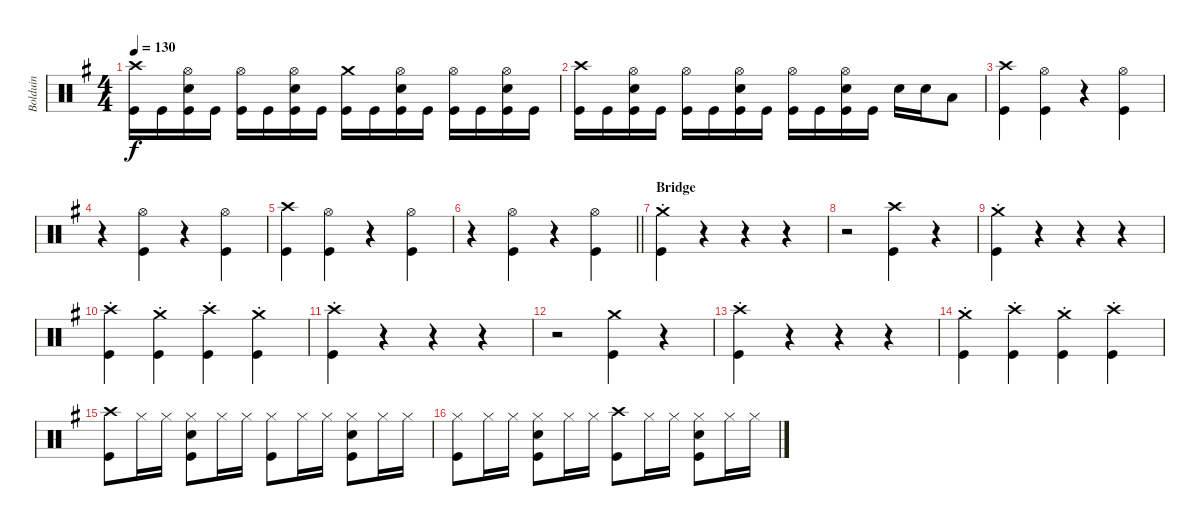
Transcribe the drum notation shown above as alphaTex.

\track ("Bolduin" "Bolduin") {instrument percussion}
\staff {score}
\articulation defaults
\ts (4 4)
\tempo 130
\clef neutral
\ks eminor
("Kick (hit)" "Crash high (hit)").16{dy f} "Kick (hit)".16 ("Kick (hit)" "Hi-Hat (open)" "Snare (hit) 2").16 "Kick (hit)".16 ("Kick (hit)" "Hi-Hat (open)").16 "Kick (hit)".16 ("Kick (hit)" "Hi-Hat (open)" "Snare (hit) 2").16 "Kick (hit)".16 ("Kick (hit)" "Crash medium (hit)").16 "Kick (hit)".16 ("Kick (hit)" "Hi-Hat (open)" "Snare (hit) 2").16 "Kick (hit)".16 ("Kick (hit)" "Hi-Hat (open)").16 "Kick (hit)".16 ("Kick (hit)" "Hi-Hat (open)" "Snare (hit) 2").16 "Kick (hit)".16 |
("Kick (hit)" "Crash high (hit)").16 "Kick (hit)".16 ("Kick (hit)" "Hi-Hat (open)" "Snare (hit) 2").16 "Kick (hit)".16 ("Kick (hit)" "Hi-Hat (open)").16 "Kick (hit)".16 ("Kick (hit)" "Hi-Hat (open)" "Snare (hit) 2").16 "Kick (hit)".16 ("Kick (hit)" "Hi-Hat (open)").16 "Kick (hit)".16 ("Kick (hit)" "Hi-Hat (open)" "Snare (hit) 2").16 "Kick (hit)".16 "Snare (hit) 2".16 "Snare (hit) 2".16 "Low Tom (hit)".8 |
("Crash high (hit)" "Kick (hit)").4 ("Hi-Hat (open)" "Kick (hit)").4 r.4 ("Kick (hit)" "Hi-Hat (open)").4 |
r.4 ("Kick (hit)" "Hi-Hat (open)").4 r.4 ("Kick (hit)" "Hi-Hat (open)").4 |
("Crash high (hit)" "Kick (hit)").4 ("Hi-Hat (open)" "Kick (hit)").4 r.4 ("Kick (hit)" "Hi-Hat (open)").4 |
\barLineRight lightlight
r.4 ("Kick (hit)" "Hi-Hat (open)").4 r.4 ("Kick (hit)" "Hi-Hat (open)").4 |
\section ("" "Bridge")
("Crash medium (hit)"{st} "Kick (hit)").4 r.4 r.4 r.4 |
r.2 ("Kick (hit)" "Crash high (hit)").4 r.4 |
("Crash medium (hit)"{st} "Kick (hit)").4 r.4 r.4 r.4 |
("Kick (hit)" "Crash high (hit)"{st}).4 ("Kick (hit)" "Crash medium (hit)"{st}).4 ("Kick (hit)" "Crash high (hit)"{st}).4 ("Kick (hit)" "Crash medium (hit)"{st}).4 |
("Crash high (hit)"{st} "Kick (hit)").4 r.4 r.4 r.4 |
r.2 ("Kick (hit)" "Crash medium (hit)").4 r.4 |
("Crash high (hit)"{st} "Kick (hit)").4 r.4 r.4 r.4 |
("Kick (hit)" "Crash medium (hit)"{st}).4 ("Kick (hit)" "Crash high (hit)"{st}).4 ("Kick (hit)" "Crash medium (hit)"{st}).4 ("Kick (hit)" "Crash high (hit)"{st}).4 |
("Crash high (hit)" "Kick (hit)").8 "Hi-Hat (closed)".16 "Hi-Hat (closed)".16 ("Hi-Hat (closed)" "Snare (hit) 2" "Kick (hit)").8 "Hi-Hat (closed)".16 "Hi-Hat (closed)".16 ("Hi-Hat (closed)" "Kick (hit)").8 "Hi-Hat (closed)".16 "Hi-Hat (closed)".16 ("Hi-Hat (closed)" "Snare (hit) 2" "Kick (hit)").8 "Hi-Hat (closed)".16 "Hi-Hat (closed)".16 |
("Hi-Hat (closed)" "Kick (hit)").8 "Hi-Hat (closed)".16 "Hi-Hat (closed)".16 ("Hi-Hat (closed)" "Snare (hit) 2" "Kick (hit)").8 "Hi-Hat (closed)".16 "Hi-Hat (closed)".16 ("Crash high (hit)" "Kick (hit)").8 "Hi-Hat (closed)".16 "Hi-Hat (closed)".16 ("Hi-Hat (closed)" "Snare (hit) 2" "Kick (hit)").8 "Hi-Hat (closed)".16 "Hi-Hat (closed)".16
